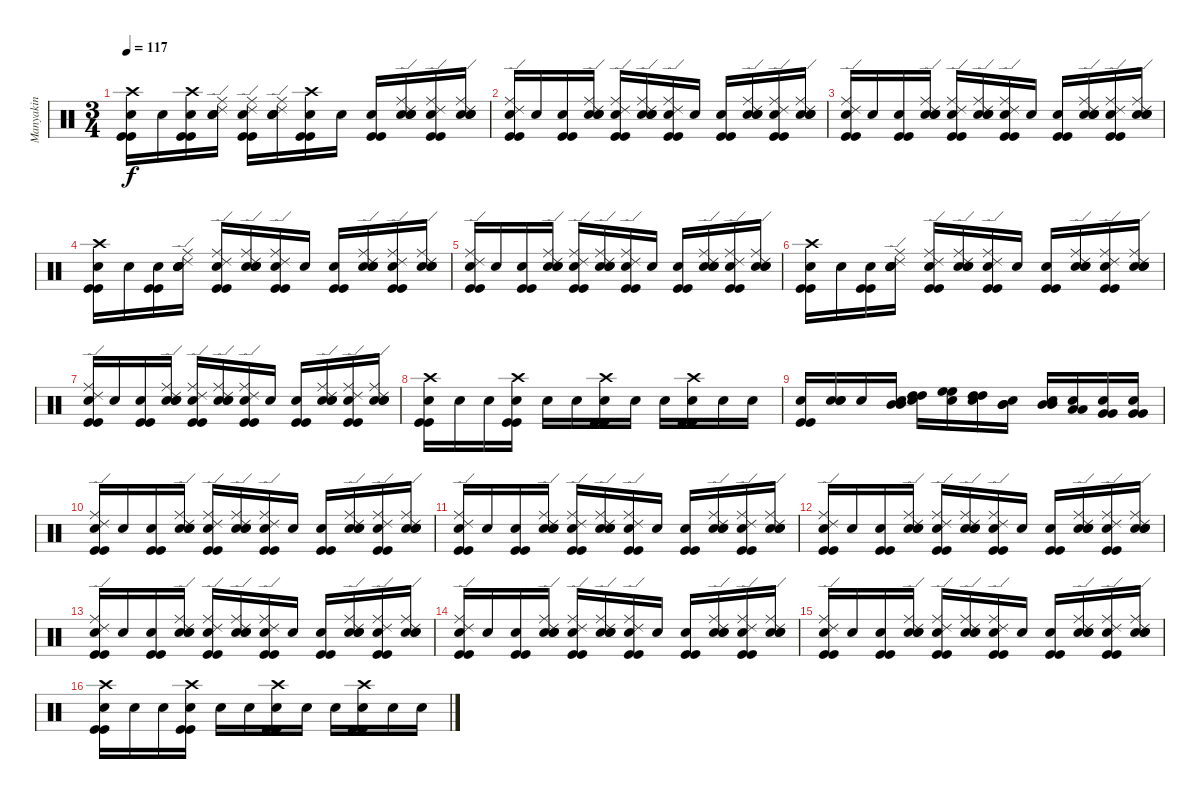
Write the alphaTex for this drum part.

\track ("Manyakin" "Manyakin") {instrument percussion}
\staff {score}
\articulation defaults
\ts (3 4)
\tempo 117
\clef neutral
\ks c
("Crash high (hit)" "Kick (hit)" "Kick (hit)" "Snare (hit)"{x}).16{dy f} "Snare (hit)"{x}.16 ("Crash high (hit)" "Kick (hit)" "Kick (hit)" "Snare (hit)"{x}).16 ("Ride (middle)" "Ride (edge) 2" "Electric Snare (hit)" "Electric Snare (hit)" "Snare (hit)"{x}).16 ("Ride (middle)" "Ride (edge) 2" "Kick (hit)" "Kick (hit)" "Snare (hit)"{x}).16 ("Ride (middle)" "Ride (edge) 2" "Electric Snare (hit)" "Electric Snare (hit)" "Snare (hit)"{x}).16 ("Crash high (hit)" "Kick (hit)" "Kick (hit)" "Snare (hit)"{x}).16 "Snare (hit)"{x}.16 ("Kick (hit)" "Kick (hit)" "Snare (hit)"{x}).16 ("Ride (middle)" "Ride (edge) 2" "Electric Snare (hit)" "Electric Snare (hit)" "Snare (hit)"{x}).16 ("Ride (middle)" "Ride (edge) 2" "Kick (hit)" "Kick (hit)" "Snare (hit)"{x}).16 ("Ride (middle)" "Ride (edge) 2" "Electric Snare (hit)" "Electric Snare (hit)" "Snare (hit)"{x}).16 |
("Ride (middle)" "Ride (edge) 2" "Kick (hit)" "Kick (hit)" "Snare (hit)"{x}).16 "Snare (hit)"{x}.16 ("Kick (hit)" "Kick (hit)" "Snare (hit)"{x}).16 ("Ride (middle)" "Ride (edge) 2" "Electric Snare (hit)" "Electric Snare (hit)" "Snare (hit)"{x}).16 ("Ride (middle)" "Ride (edge) 2" "Kick (hit)" "Kick (hit)" "Snare (hit)"{x}).16 ("Ride (middle)" "Ride (edge) 2" "Electric Snare (hit)" "Electric Snare (hit)" "Snare (hit)"{x}).16 ("Ride (middle)" "Ride (edge) 2" "Kick (hit)" "Kick (hit)" "Snare (hit)"{x}).16 "Snare (hit)"{x}.16 ("Kick (hit)" "Kick (hit)" "Snare (hit)"{x}).16 ("Ride (middle)" "Ride (edge) 2" "Electric Snare (hit)" "Electric Snare (hit)" "Snare (hit)"{x}).16 ("Ride (middle)" "Ride (edge) 2" "Kick (hit)" "Kick (hit)" "Snare (hit)"{x}).16 ("Ride (middle)" "Ride (edge) 2" "Electric Snare (hit)" "Electric Snare (hit)" "Snare (hit)"{x}).16 |
("Ride (middle)" "Ride (edge) 2" "Kick (hit)" "Kick (hit)" "Snare (hit)"{x}).16 "Snare (hit)"{x}.16 ("Kick (hit)" "Kick (hit)" "Snare (hit)"{x}).16 ("Ride (middle)" "Ride (edge) 2" "Electric Snare (hit)" "Electric Snare (hit)" "Snare (hit)"{x}).16 ("Ride (middle)" "Ride (edge) 2" "Kick (hit)" "Kick (hit)" "Snare (hit)"{x}).16 ("Ride (middle)" "Ride (edge) 2" "Electric Snare (hit)" "Electric Snare (hit)" "Snare (hit)"{x}).16 ("Ride (middle)" "Ride (edge) 2" "Kick (hit)" "Kick (hit)" "Snare (hit)"{x}).16 "Snare (hit)"{x}.16 ("Kick (hit)" "Kick (hit)" "Snare (hit)"{x}).16 ("Ride (middle)" "Ride (edge) 2" "Electric Snare (hit)" "Electric Snare (hit)" "Snare (hit)"{x}).16 ("Ride (middle)" "Ride (edge) 2" "Kick (hit)" "Kick (hit)" "Snare (hit)"{x}).16 ("Ride (middle)" "Ride (edge) 2" "Electric Snare (hit)" "Electric Snare (hit)" "Snare (hit)"{x}).16 |
("Crash high (hit)" "Kick (hit)" "Kick (hit)" "Snare (hit)"{x}).16 "Snare (hit)"{x}.16 ("Kick (hit)" "Kick (hit)" "Snare (hit)"{x}).16 ("Ride (middle)" "Ride (edge) 2" "Electric Snare (hit)" "Electric Snare (hit)" "Snare (hit)"{x}).16 ("Ride (middle)" "Ride (edge) 2" "Kick (hit)" "Kick (hit)" "Snare (hit)"{x}).16 ("Ride (middle)" "Ride (edge) 2" "Electric Snare (hit)" "Electric Snare (hit)" "Snare (hit)"{x}).16 ("Ride (middle)" "Ride (edge) 2" "Kick (hit)" "Kick (hit)" "Snare (hit)"{x}).16 "Snare (hit)"{x}.16 ("Kick (hit)" "Kick (hit)" "Snare (hit)"{x}).16 ("Ride (middle)" "Ride (edge) 2" "Electric Snare (hit)" "Electric Snare (hit)" "Snare (hit)"{x}).16 ("Ride (middle)" "Ride (edge) 2" "Kick (hit)" "Kick (hit)" "Snare (hit)"{x}).16 ("Ride (middle)" "Ride (edge) 2" "Electric Snare (hit)" "Electric Snare (hit)" "Snare (hit)"{x}).16 |
("Ride (middle)" "Ride (edge) 2" "Kick (hit)" "Kick (hit)" "Snare (hit)"{x}).16 "Snare (hit)"{x}.16 ("Kick (hit)" "Kick (hit)" "Snare (hit)"{x}).16 ("Ride (middle)" "Ride (edge) 2" "Electric Snare (hit)" "Electric Snare (hit)" "Snare (hit)"{x}).16 ("Ride (middle)" "Ride (edge) 2" "Kick (hit)" "Kick (hit)" "Snare (hit)"{x}).16 ("Ride (middle)" "Ride (edge) 2" "Electric Snare (hit)" "Electric Snare (hit)" "Snare (hit)"{x}).16 ("Ride (middle)" "Ride (edge) 2" "Kick (hit)" "Kick (hit)" "Snare (hit)"{x}).16 "Snare (hit)"{x}.16 ("Kick (hit)" "Kick (hit)" "Snare (hit)"{x}).16 ("Ride (middle)" "Ride (edge) 2" "Electric Snare (hit)" "Electric Snare (hit)" "Snare (hit)"{x}).16 ("Ride (middle)" "Ride (edge) 2" "Kick (hit)" "Kick (hit)" "Snare (hit)"{x}).16 ("Ride (middle)" "Ride (edge) 2" "Electric Snare (hit)" "Electric Snare (hit)" "Snare (hit)"{x}).16 |
("Crash high (hit)" "Kick (hit)" "Kick (hit)" "Snare (hit)"{x}).16 "Snare (hit)"{x}.16 ("Kick (hit)" "Kick (hit)" "Snare (hit)"{x}).16 ("Ride (middle)" "Ride (edge) 2" "Electric Snare (hit)" "Electric Snare (hit)" "Snare (hit)"{x}).16 ("Ride (middle)" "Ride (edge) 2" "Kick (hit)" "Kick (hit)" "Snare (hit)"{x}).16 ("Ride (middle)" "Ride (edge) 2" "Electric Snare (hit)" "Electric Snare (hit)" "Snare (hit)"{x}).16 ("Ride (middle)" "Ride (edge) 2" "Kick (hit)" "Kick (hit)" "Snare (hit)"{x}).16 "Snare (hit)"{x}.16 ("Kick (hit)" "Kick (hit)" "Snare (hit)"{x}).16 ("Ride (middle)" "Ride (edge) 2" "Electric Snare (hit)" "Electric Snare (hit)" "Snare (hit)"{x}).16 ("Ride (middle)" "Ride (edge) 2" "Kick (hit)" "Kick (hit)" "Snare (hit)"{x}).16 ("Ride (middle)" "Ride (edge) 2" "Electric Snare (hit)" "Electric Snare (hit)" "Snare (hit)"{x}).16 |
("Ride (middle)" "Ride (edge) 2" "Kick (hit)" "Kick (hit)" "Snare (hit)"{x}).16 "Snare (hit)"{x}.16 ("Kick (hit)" "Kick (hit)" "Snare (hit)"{x}).16 ("Ride (middle)" "Ride (edge) 2" "Electric Snare (hit)" "Electric Snare (hit)" "Snare (hit)"{x}).16 ("Ride (middle)" "Ride (edge) 2" "Kick (hit)" "Kick (hit)" "Snare (hit)"{x}).16 ("Ride (middle)" "Ride (edge) 2" "Electric Snare (hit)" "Electric Snare (hit)" "Snare (hit)"{x}).16 ("Ride (middle)" "Ride (edge) 2" "Kick (hit)" "Kick (hit)" "Snare (hit)"{x}).16 "Snare (hit)"{x}.16 ("Kick (hit)" "Kick (hit)" "Snare (hit)"{x}).16 ("Ride (middle)" "Ride (edge) 2" "Electric Snare (hit)" "Electric Snare (hit)" "Snare (hit)"{x}).16 ("Ride (middle)" "Ride (edge) 2" "Kick (hit)" "Kick (hit)" "Snare (hit)"{x}).16 ("Ride (middle)" "Ride (edge) 2" "Electric Snare (hit)" "Electric Snare (hit)" "Snare (hit)"{x}).16 |
("Crash high (hit)" "Kick (hit)" "Kick (hit)" "Snare (hit)"{x}).16 "Snare (hit)"{x}.16 "Snare (hit)"{x}.16 ("Crash high (hit)" "Kick (hit)" "Kick (hit)" "Snare (hit)"{x}).16 "Snare (hit)"{x}.16 "Snare (hit)"{x}.16 ("Crash high (hit)" "Kick (hit)" "Kick (hit)" "Snare (hit)"{x}).16 "Snare (hit)"{x}.16 "Snare (hit)"{x}.16 ("Crash high (hit)" "Kick (hit)" "Kick (hit)" "Snare (hit)"{x}).16 "Snare (hit)"{x}.16 "Snare (hit)"{x}.16 |
("Kick (hit)" "Kick (hit)" "Snare (hit)"{x}).16 ("Electric Snare (hit)" "Electric Snare (hit)" "Snare (hit)"{x}).16 "Snare (hit)"{x}.16 ("Mid Tom (hit)" "Mid Tom (hit)" "Snare (hit)"{x}).16 ("High Tom (hit)" "High Tom (hit)" "Snare (hit)"{x}).16 ("High Floor Tom (hit)" "High Floor Tom (hit)" "Snare (hit)"{x}).16 ("High Tom (hit)" "High Tom (hit)" "Snare (hit)"{x}).16 ("Mid Tom (hit)" "Mid Tom (hit)" "Snare (hit)"{x}).16 ("Mid Tom (hit)" "Mid Tom (hit)" "Snare (hit)"{x}).16 ("Low Tom (hit)" "Low Tom (hit)" "Snare (hit)"{x}).16 ("Very Low Tom (hit)" "Very Low Tom (hit)" "Snare (hit)"{x}).16 ("Very Low Tom (hit)" "Very Low Tom (hit)" "Snare (hit)"{x}).16 |
("Ride (middle)" "Ride (edge) 2" "Kick (hit)" "Kick (hit)" "Snare (hit)"{x}).16 "Snare (hit)"{x}.16 ("Kick (hit)" "Kick (hit)" "Snare (hit)"{x}).16 ("Ride (middle)" "Ride (edge) 2" "Electric Snare (hit)" "Electric Snare (hit)" "Snare (hit)"{x}).16 ("Ride (middle)" "Ride (edge) 2" "Kick (hit)" "Kick (hit)" "Snare (hit)"{x}).16 ("Ride (middle)" "Ride (edge) 2" "Electric Snare (hit)" "Electric Snare (hit)" "Snare (hit)"{x}).16 ("Ride (middle)" "Ride (edge) 2" "Kick (hit)" "Kick (hit)" "Snare (hit)"{x}).16 "Snare (hit)"{x}.16 ("Kick (hit)" "Kick (hit)" "Snare (hit)"{x}).16 ("Ride (middle)" "Ride (edge) 2" "Electric Snare (hit)" "Electric Snare (hit)" "Snare (hit)"{x}).16 ("Ride (middle)" "Ride (edge) 2" "Kick (hit)" "Kick (hit)" "Snare (hit)"{x}).16 ("Ride (middle)" "Ride (edge) 2" "Electric Snare (hit)" "Electric Snare (hit)" "Snare (hit)"{x}).16 |
("Ride (middle)" "Ride (edge) 2" "Kick (hit)" "Kick (hit)" "Snare (hit)"{x}).16 "Snare (hit)"{x}.16 ("Kick (hit)" "Kick (hit)" "Snare (hit)"{x}).16 ("Ride (middle)" "Ride (edge) 2" "Electric Snare (hit)" "Electric Snare (hit)" "Snare (hit)"{x}).16 ("Ride (middle)" "Ride (edge) 2" "Kick (hit)" "Kick (hit)" "Snare (hit)"{x}).16 ("Ride (middle)" "Ride (edge) 2" "Electric Snare (hit)" "Electric Snare (hit)" "Snare (hit)"{x}).16 ("Ride (middle)" "Ride (edge) 2" "Kick (hit)" "Kick (hit)" "Snare (hit)"{x}).16 "Snare (hit)"{x}.16 ("Kick (hit)" "Kick (hit)" "Snare (hit)"{x}).16 ("Ride (middle)" "Ride (edge) 2" "Electric Snare (hit)" "Electric Snare (hit)" "Snare (hit)"{x}).16 ("Ride (middle)" "Ride (edge) 2" "Kick (hit)" "Kick (hit)" "Snare (hit)"{x}).16 ("Ride (middle)" "Ride (edge) 2" "Electric Snare (hit)" "Electric Snare (hit)" "Snare (hit)"{x}).16 |
("Ride (middle)" "Ride (edge) 2" "Kick (hit)" "Kick (hit)" "Snare (hit)"{x}).16 "Snare (hit)"{x}.16 ("Kick (hit)" "Kick (hit)" "Snare (hit)"{x}).16 ("Ride (middle)" "Ride (edge) 2" "Electric Snare (hit)" "Electric Snare (hit)" "Snare (hit)"{x}).16 ("Ride (middle)" "Ride (edge) 2" "Kick (hit)" "Kick (hit)" "Snare (hit)"{x}).16 ("Ride (middle)" "Ride (edge) 2" "Electric Snare (hit)" "Electric Snare (hit)" "Snare (hit)"{x}).16 ("Ride (middle)" "Ride (edge) 2" "Kick (hit)" "Kick (hit)" "Snare (hit)"{x}).16 "Snare (hit)"{x}.16 ("Kick (hit)" "Kick (hit)" "Snare (hit)"{x}).16 ("Ride (middle)" "Ride (edge) 2" "Electric Snare (hit)" "Electric Snare (hit)" "Snare (hit)"{x}).16 ("Ride (middle)" "Ride (edge) 2" "Kick (hit)" "Kick (hit)" "Snare (hit)"{x}).16 ("Ride (middle)" "Ride (edge) 2" "Electric Snare (hit)" "Electric Snare (hit)" "Snare (hit)"{x}).16 |
("Ride (middle)" "Ride (edge) 2" "Kick (hit)" "Kick (hit)" "Snare (hit)"{x}).16 "Snare (hit)"{x}.16 ("Kick (hit)" "Kick (hit)" "Snare (hit)"{x}).16 ("Ride (middle)" "Ride (edge) 2" "Electric Snare (hit)" "Electric Snare (hit)" "Snare (hit)"{x}).16 ("Ride (middle)" "Ride (edge) 2" "Kick (hit)" "Kick (hit)" "Snare (hit)"{x}).16 ("Ride (middle)" "Ride (edge) 2" "Electric Snare (hit)" "Electric Snare (hit)" "Snare (hit)"{x}).16 ("Ride (middle)" "Ride (edge) 2" "Kick (hit)" "Kick (hit)" "Snare (hit)"{x}).16 "Snare (hit)"{x}.16 ("Kick (hit)" "Kick (hit)" "Snare (hit)"{x}).16 ("Ride (middle)" "Ride (edge) 2" "Electric Snare (hit)" "Electric Snare (hit)" "Snare (hit)"{x}).16 ("Ride (middle)" "Ride (edge) 2" "Kick (hit)" "Kick (hit)" "Snare (hit)"{x}).16 ("Ride (middle)" "Ride (edge) 2" "Electric Snare (hit)" "Electric Snare (hit)" "Snare (hit)"{x}).16 |
("Ride (middle)" "Ride (edge) 2" "Kick (hit)" "Kick (hit)" "Snare (hit)"{x}).16 "Snare (hit)"{x}.16 ("Kick (hit)" "Kick (hit)" "Snare (hit)"{x}).16 ("Ride (middle)" "Ride (edge) 2" "Electric Snare (hit)" "Electric Snare (hit)" "Snare (hit)"{x}).16 ("Ride (middle)" "Ride (edge) 2" "Kick (hit)" "Kick (hit)" "Snare (hit)"{x}).16 ("Ride (middle)" "Ride (edge) 2" "Electric Snare (hit)" "Electric Snare (hit)" "Snare (hit)"{x}).16 ("Ride (middle)" "Ride (edge) 2" "Kick (hit)" "Kick (hit)" "Snare (hit)"{x}).16 "Snare (hit)"{x}.16 ("Kick (hit)" "Kick (hit)" "Snare (hit)"{x}).16 ("Ride (middle)" "Ride (edge) 2" "Electric Snare (hit)" "Electric Snare (hit)" "Snare (hit)"{x}).16 ("Ride (middle)" "Ride (edge) 2" "Kick (hit)" "Kick (hit)" "Snare (hit)"{x}).16 ("Ride (middle)" "Ride (edge) 2" "Electric Snare (hit)" "Electric Snare (hit)" "Snare (hit)"{x}).16 |
("Ride (middle)" "Ride (edge) 2" "Kick (hit)" "Kick (hit)" "Snare (hit)"{x}).16 "Snare (hit)"{x}.16 ("Kick (hit)" "Kick (hit)" "Snare (hit)"{x}).16 ("Ride (middle)" "Ride (edge) 2" "Electric Snare (hit)" "Electric Snare (hit)" "Snare (hit)"{x}).16 ("Ride (middle)" "Ride (edge) 2" "Kick (hit)" "Kick (hit)" "Snare (hit)"{x}).16 ("Ride (middle)" "Ride (edge) 2" "Electric Snare (hit)" "Electric Snare (hit)" "Snare (hit)"{x}).16 ("Ride (middle)" "Ride (edge) 2" "Kick (hit)" "Kick (hit)" "Snare (hit)"{x}).16 "Snare (hit)"{x}.16 ("Kick (hit)" "Kick (hit)" "Snare (hit)"{x}).16 ("Ride (middle)" "Ride (edge) 2" "Electric Snare (hit)" "Electric Snare (hit)" "Snare (hit)"{x}).16 ("Ride (middle)" "Ride (edge) 2" "Kick (hit)" "Kick (hit)" "Snare (hit)"{x}).16 ("Ride (middle)" "Ride (edge) 2" "Electric Snare (hit)" "Electric Snare (hit)" "Snare (hit)"{x}).16 |
("Crash high (hit)" "Kick (hit)" "Kick (hit)" "Snare (hit)"{x}).16 "Snare (hit)"{x}.16 "Snare (hit)"{x}.16 ("Crash high (hit)" "Kick (hit)" "Kick (hit)" "Snare (hit)"{x}).16 "Snare (hit)"{x}.16 "Snare (hit)"{x}.16 ("Crash high (hit)" "Kick (hit)" "Kick (hit)" "Snare (hit)"{x}).16 "Snare (hit)"{x}.16 "Snare (hit)"{x}.16 ("Crash high (hit)" "Kick (hit)" "Kick (hit)" "Snare (hit)"{x}).16 "Snare (hit)"{x}.16 "Snare (hit)"{x}.16
